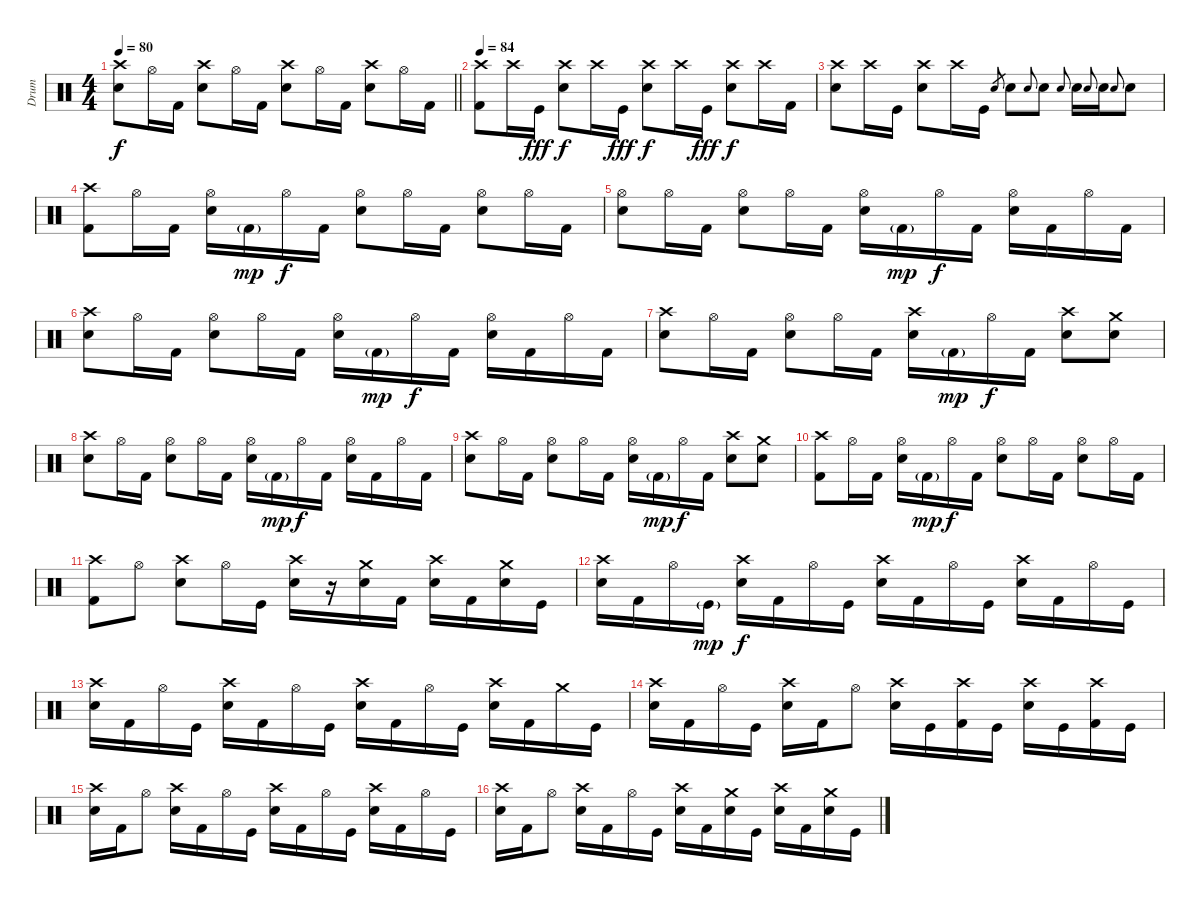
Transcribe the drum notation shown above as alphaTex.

\track ("Drum" "Drum") {instrument percussion}
\staff {score}
\articulation defaults
\ts (4 4)
\tempo 80
\clef neutral
\barLineRight lightlight
\ks c
("Crash high (hit)" "Snare (hit) 2").8{dy f} "Hi-Hat (open)".16 "Kick (hit) 2".16 ("Crash high (hit)" "Snare (hit) 2").8 "Hi-Hat (open)".16 "Kick (hit) 2".16 ("Crash high (hit)" "Snare (hit) 2").8 "Hi-Hat (open)".16 "Kick (hit) 2".16 ("Crash high (hit)" "Snare (hit) 2").8 "Hi-Hat (open)".16 "Kick (hit) 2".16 |
\section ("" "")
\tempo 84
("Crash high (hit)" "Kick (hit) 2").8 "Crash high (hit)".16 "Kick (hit)".16{dy fff} ("Crash high (hit)" "Snare (hit) 2").8{dy f} "Crash high (hit)".16 "Kick (hit)".16{dy fff} ("Crash high (hit)" "Snare (hit) 2").8{dy f} "Crash high (hit)".16 "Kick (hit)".16{dy fff} ("Crash high (hit)" "Snare (hit) 2").8{dy f} "Crash high (hit)".16 "Kick (hit) 2".16 |
("Crash high (hit)" "Snare (hit) 2").8 "Crash high (hit)".16 "Kick (hit)".16 ("Crash high (hit)" "Snare (hit) 2").8 "Crash high (hit)".16 "Kick (hit)".16 "Snare (hit) 2".8{gr} "Snare (hit) 2".8 "Snare (hit) 2".8{gr onbeat} "Snare (hit) 2".8 "Snare (hit) 2".8{gr onbeat} "Snare (hit) 2".16 "Snare (hit) 2".8{gr onbeat} "Snare (hit) 2".16 "Snare (hit) 2".8{gr onbeat} "Snare (hit) 2".8 |
("Crash high (hit)" "Kick (hit) 2").8 "Hi-Hat (open)".16 "Kick (hit) 2".16 ("Hi-Hat (open)" "Snare (hit) 2").16 "Kick (hit) 2"{g}.16{dy mp} "Hi-Hat (open)".16{dy f} "Kick (hit) 2".16 ("Hi-Hat (open)" "Snare (hit) 2").8 "Hi-Hat (open)".16 "Kick (hit) 2".16 ("Hi-Hat (open)" "Snare (hit) 2").8 "Hi-Hat (open)".16 "Kick (hit) 2".16 |
("Hi-Hat (open)" "Snare (hit) 2").8 "Hi-Hat (open)".16 "Kick (hit) 2".16 ("Hi-Hat (open)" "Snare (hit) 2").8 "Hi-Hat (open)".16 "Kick (hit) 2".16 ("Hi-Hat (open)" "Snare (hit) 2").16 "Kick (hit) 2"{g}.16{dy mp} "Hi-Hat (open)".16{dy f} "Kick (hit) 2".16 ("Hi-Hat (open)" "Snare (hit) 2").16 "Kick (hit) 2".16 "Hi-Hat (open)".16 "Kick (hit) 2".16 |
("Crash high (hit)" "Snare (hit) 2").8 "Hi-Hat (open)".16 "Kick (hit) 2".16 ("Hi-Hat (open)" "Snare (hit) 2").8 "Hi-Hat (open)".16 "Kick (hit) 2".16 ("Hi-Hat (open)" "Snare (hit) 2").16 "Kick (hit) 2"{g}.16{dy mp} "Hi-Hat (open)".16{dy f} "Kick (hit) 2".16 ("Hi-Hat (open)" "Snare (hit) 2").16 "Kick (hit) 2".16 "Hi-Hat (open)".16 "Kick (hit) 2".16 |
("Crash high (hit)" "Snare (hit) 2").8 "Hi-Hat (open)".16 "Kick (hit) 2".16 ("Hi-Hat (open)" "Snare (hit) 2").8 "Hi-Hat (open)".16 "Kick (hit) 2".16 ("Crash high (hit)" "Snare (hit) 2").16 "Kick (hit) 2"{g}.16{dy mp} "Hi-Hat (open)".16{dy f} "Kick (hit) 2".16 ("Crash high (hit)" "Snare (hit) 2").8 ("Crash medium (hit)" "Snare (hit) 2").8 |
("Crash high (hit)" "Snare (hit) 2").8 "Hi-Hat (open)".16 "Kick (hit) 2".16 ("Hi-Hat (open)" "Snare (hit) 2").8 "Hi-Hat (open)".16 "Kick (hit) 2".16 ("Hi-Hat (open)" "Snare (hit) 2").16 "Kick (hit) 2"{g}.16{dy mp} "Hi-Hat (open)".16{dy f} "Kick (hit) 2".16 ("Hi-Hat (open)" "Snare (hit) 2").16 "Kick (hit) 2".16 "Hi-Hat (open)".16 "Kick (hit) 2".16 |
("Crash high (hit)" "Snare (hit) 2").8 "Hi-Hat (open)".16 "Kick (hit) 2".16 ("Hi-Hat (open)" "Snare (hit) 2").8 "Hi-Hat (open)".16 "Kick (hit) 2".16 ("Hi-Hat (open)" "Snare (hit) 2").16 "Kick (hit) 2"{g}.16{dy mp} "Hi-Hat (open)".16{dy f} "Kick (hit) 2".16 ("Crash high (hit)" "Snare (hit) 2").8 ("Crash medium (hit)" "Snare (hit) 2").8 |
("Crash high (hit)" "Kick (hit) 2").8 "Hi-Hat (open)".16 "Kick (hit) 2".16 ("Hi-Hat (open)" "Snare (hit) 2").16 "Kick (hit) 2"{g}.16{dy mp} "Hi-Hat (open)".16{dy f} "Kick (hit) 2".16 ("Hi-Hat (open)" "Snare (hit) 2").8 "Hi-Hat (open)".16 "Kick (hit) 2".16 ("Hi-Hat (open)" "Snare (hit) 2").8 "Hi-Hat (open)".16 "Kick (hit) 2".16 |
("Crash high (hit)" "Kick (hit) 2").8 "Hi-Hat (open)".8 ("Crash high (hit)" "Snare (hit) 2").8 "Hi-Hat (open)".16 "Kick (hit)".16 ("Crash high (hit)" "Snare (hit) 2").16 r.16 ("Crash medium (hit)" "Snare (hit) 2").16 "Kick (hit) 2".16 ("Crash high (hit)" "Snare (hit) 2").16 "Kick (hit) 2".16 ("Crash medium (hit)" "Snare (hit) 2").16 "Kick (hit)".16 |
("Crash high (hit)" "Snare (hit) 2").16 "Kick (hit) 2".16 "Hi-Hat (open)".16 "Kick (hit)"{g}.16{dy mp} ("Crash high (hit)" "Snare (hit) 2").16{dy f} "Kick (hit) 2".16 "Hi-Hat (open)".16 "Kick (hit)".16 ("Crash high (hit)" "Snare (hit) 2").16 "Kick (hit) 2".16 "Hi-Hat (open)".16 "Kick (hit)".16 ("Crash high (hit)" "Snare (hit) 2").16 "Kick (hit) 2".16 "Hi-Hat (open)".16 "Kick (hit)".16 |
("Crash high (hit)" "Snare (hit) 2").16 "Kick (hit) 2".16 "Hi-Hat (open)".16 "Kick (hit)".16 ("Crash high (hit)" "Snare (hit) 2").16 "Kick (hit) 2".16 "Hi-Hat (open)".16 "Kick (hit)".16 ("Crash high (hit)" "Snare (hit) 2").16 "Kick (hit) 2".16 "Hi-Hat (open)".16 "Kick (hit)".16 ("Crash high (hit)" "Snare (hit) 2").16 "Kick (hit) 2".16 "Crash medium (hit)".16 "Kick (hit)".16 |
("Crash high (hit)" "Snare (hit) 2").16 "Kick (hit) 2".16 "Hi-Hat (open)".16 "Kick (hit)".16 ("Crash high (hit)" "Snare (hit) 2").16 "Kick (hit) 2".16 "Hi-Hat (open)".8 ("Crash high (hit)" "Snare (hit) 2").16 "Kick (hit)".16 ("Crash high (hit)" "Kick (hit) 2").16 "Kick (hit)".16 ("Crash high (hit)" "Snare (hit) 2").16 "Kick (hit)".16 ("Crash high (hit)" "Kick (hit) 2").16 "Kick (hit)".16 |
("Crash high (hit)" "Snare (hit) 2").16 "Kick (hit) 2".16 "Hi-Hat (open)".8 ("Crash high (hit)" "Snare (hit) 2").16 "Kick (hit) 2".16 "Hi-Hat (open)".16 "Kick (hit)".16 ("Crash high (hit)" "Snare (hit) 2").16 "Kick (hit) 2".16 "Hi-Hat (open)".16 "Kick (hit)".16 ("Crash high (hit)" "Snare (hit) 2").16 "Kick (hit) 2".16 "Hi-Hat (open)".16 "Kick (hit)".16 |
("Crash high (hit)" "Snare (hit) 2").16 "Kick (hit) 2".16 "Hi-Hat (open)".8 ("Crash high (hit)" "Snare (hit) 2").16 "Kick (hit) 2".16 "Hi-Hat (open)".16 "Kick (hit)".16 ("Crash high (hit)" "Snare (hit) 2").16 "Kick (hit) 2".16 ("Crash medium (hit)" "Snare (hit) 2").16 "Kick (hit)".16 ("Crash high (hit)" "Snare (hit) 2").16 "Kick (hit) 2".16 ("Crash medium (hit)" "Snare (hit) 2").16 "Kick (hit)".16
